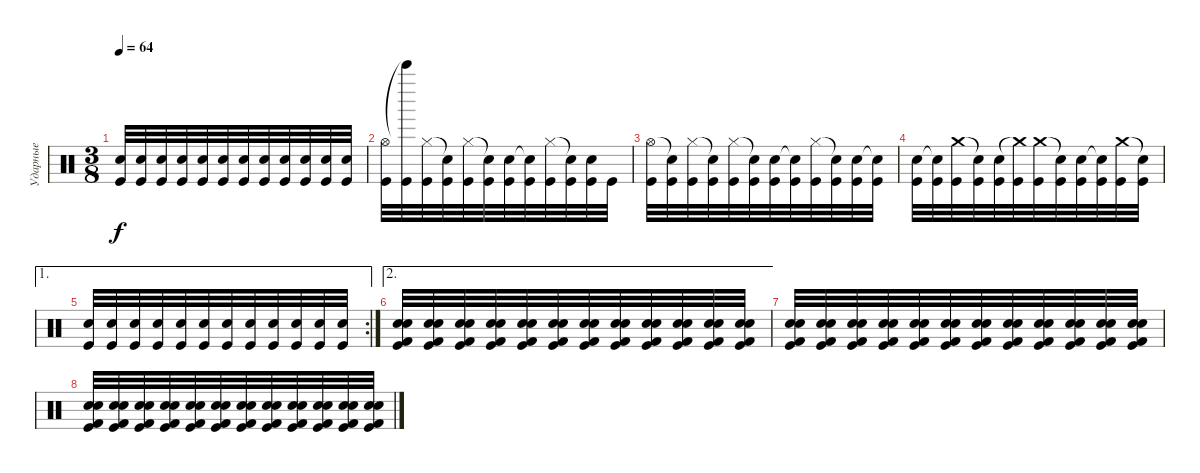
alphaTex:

\track ("Ударные" "Ударные") {instrument percussion}
\staff {score}
\articulation defaults
\ts (3 8)
\tempo 64
\clef neutral
\ks c
("Snare (hit) 2" "Kick (hit)").32{dy f} ("Snare (hit) 2" "Kick (hit)").32 ("Snare (hit) 2" "Kick (hit)").32 ("Snare (hit) 2" "Kick (hit)").32 ("Snare (hit) 2" "Kick (hit)").32 ("Snare (hit) 2" "Kick (hit)").32 ("Snare (hit) 2" "Kick (hit)").32 ("Snare (hit) 2" "Kick (hit)").32 ("Snare (hit) 2" "Kick (hit)").32 ("Snare (hit) 2" "Kick (hit)").32 ("Snare (hit) 2" "Kick (hit)").32 ("Snare (hit) 2" "Kick (hit)").32 |
("Hi-Hat (open)" "Kick (hit)").32 ("Bell Tree (hit)"{t} "Kick (hit)").32 ("Hi-Hat (closed)" "Kick (hit)").32 ("Snare (hit)"{t} "Kick (hit)").32 ("Hi-Hat (closed)" "Kick (hit)").32 ("Snare (hit)"{t} "Kick (hit)").32 ("Snare (hit) 2" "Kick (hit)").32 ("Snare (hit)"{t} "Kick (hit)").32 ("Hi-Hat (closed)" "Kick (hit)").32 ("Snare (hit)"{t} "Kick (hit)").32 ("Snare (hit) 2" "Kick (hit)").32 "Kick (hit)".32 |
("Hi-Hat (open)" "Kick (hit)").32 ("Snare (hit)"{t} "Kick (hit)").32 ("Hi-Hat (closed)" "Kick (hit)").32 ("Snare (hit)"{t} "Kick (hit)").32 ("Hi-Hat (closed)" "Kick (hit)").32 ("Snare (hit)"{t} "Kick (hit)").32 ("Snare (hit) 2" "Kick (hit)").32 ("Snare (hit)"{t} "Kick (hit)").32 ("Hi-Hat (closed)" "Kick (hit)").32 ("Snare (hit)"{t} "Kick (hit)").32 ("Snare (hit) 2" "Kick (hit)").32 ("Snare (hit)"{t} "Kick (hit)").32 |
("Snare (hit) 2" "Kick (hit)").32 ("Snare (hit)"{t} "Kick (hit)").32 ("Crash medium (hit)" "Kick (hit)").32 ("Snare (hit) 2"{t} "Kick (hit)").32 ("Snare (hit) 2" "Kick (hit)").32 ("Crash medium (hit)"{t} "Kick (hit)").32 ("Crash medium (hit)" "Kick (hit)").32 ("Snare (hit)"{t} "Kick (hit)").32 ("Snare (hit) 2" "Kick (hit)").32 ("Snare (hit)"{t} "Kick (hit)").32 ("Crash medium (hit)" "Kick (hit)").32 ("Snare (hit)"{t} "Kick (hit)").32 |
\ae 1
\rc 2
("Snare (hit) 2" "Kick (hit)").32 ("Snare (hit) 2" "Kick (hit)").32 ("Snare (hit) 2" "Kick (hit)").32 ("Snare (hit) 2" "Kick (hit)").32 ("Snare (hit) 2" "Kick (hit)").32 ("Snare (hit) 2" "Kick (hit)").32 ("Snare (hit) 2" "Kick (hit)").32 ("Snare (hit) 2" "Kick (hit)").32 ("Snare (hit) 2" "Kick (hit)").32 ("Snare (hit) 2" "Kick (hit)").32 ("Snare (hit) 2" "Kick (hit)").32 ("Snare (hit) 2" "Kick (hit)").32 |
\ae 2
("Electric Snare (hit)" "Snare (hit) 2" "Kick (hit) 2" "Kick (hit)").32 ("Electric Snare (hit)" "Snare (hit) 2" "Kick (hit) 2" "Kick (hit)").32 ("Electric Snare (hit)" "Snare (hit) 2" "Kick (hit) 2" "Kick (hit)").32 ("Electric Snare (hit)" "Snare (hit) 2" "Kick (hit) 2" "Kick (hit)").32 ("Electric Snare (hit)" "Snare (hit) 2" "Kick (hit) 2" "Kick (hit)").32 ("Electric Snare (hit)" "Snare (hit) 2" "Kick (hit) 2" "Kick (hit)").32 ("Electric Snare (hit)" "Snare (hit) 2" "Kick (hit) 2" "Kick (hit)").32 ("Electric Snare (hit)" "Snare (hit) 2" "Kick (hit) 2" "Kick (hit)").32 ("Electric Snare (hit)" "Snare (hit) 2" "Kick (hit) 2" "Kick (hit)").32 ("Electric Snare (hit)" "Snare (hit) 2" "Kick (hit) 2" "Kick (hit)").32 ("Electric Snare (hit)" "Snare (hit) 2" "Kick (hit) 2" "Kick (hit)").32 ("Electric Snare (hit)" "Snare (hit) 2" "Kick (hit) 2" "Kick (hit)").32 |
("Electric Snare (hit)" "Snare (hit) 2" "Kick (hit) 2" "Kick (hit)").32 ("Electric Snare (hit)" "Snare (hit) 2" "Kick (hit) 2" "Kick (hit)").32 ("Electric Snare (hit)" "Snare (hit) 2" "Kick (hit) 2" "Kick (hit)").32 ("Electric Snare (hit)" "Snare (hit) 2" "Kick (hit) 2" "Kick (hit)").32 ("Electric Snare (hit)" "Snare (hit) 2" "Kick (hit) 2" "Kick (hit)").32 ("Electric Snare (hit)" "Snare (hit) 2" "Kick (hit) 2" "Kick (hit)").32 ("Electric Snare (hit)" "Snare (hit) 2" "Kick (hit) 2" "Kick (hit)").32 ("Electric Snare (hit)" "Snare (hit) 2" "Kick (hit) 2" "Kick (hit)").32 ("Electric Snare (hit)" "Snare (hit) 2" "Kick (hit) 2" "Kick (hit)").32 ("Electric Snare (hit)" "Snare (hit) 2" "Kick (hit) 2" "Kick (hit)").32 ("Electric Snare (hit)" "Snare (hit) 2" "Kick (hit) 2" "Kick (hit)").32 ("Electric Snare (hit)" "Snare (hit) 2" "Kick (hit) 2" "Kick (hit)").32 |
("Electric Snare (hit)" "Snare (hit) 2" "Kick (hit) 2" "Kick (hit)").32 ("Electric Snare (hit)" "Snare (hit) 2" "Kick (hit) 2" "Kick (hit)").32 ("Electric Snare (hit)" "Snare (hit) 2" "Kick (hit) 2" "Kick (hit)").32 ("Electric Snare (hit)" "Snare (hit) 2" "Kick (hit) 2" "Kick (hit)").32 ("Electric Snare (hit)" "Snare (hit) 2" "Kick (hit) 2" "Kick (hit)").32 ("Electric Snare (hit)" "Snare (hit) 2" "Kick (hit) 2" "Kick (hit)").32 ("Electric Snare (hit)" "Snare (hit) 2" "Kick (hit) 2" "Kick (hit)").32 ("Electric Snare (hit)" "Snare (hit) 2" "Kick (hit) 2" "Kick (hit)").32 ("Electric Snare (hit)" "Snare (hit) 2" "Kick (hit) 2" "Kick (hit)").32 ("Electric Snare (hit)" "Snare (hit) 2" "Kick (hit) 2" "Kick (hit)").32 ("Electric Snare (hit)" "Snare (hit) 2" "Kick (hit) 2" "Kick (hit)").32 ("Electric Snare (hit)" "Snare (hit) 2" "Kick (hit) 2" "Kick (hit)").32
